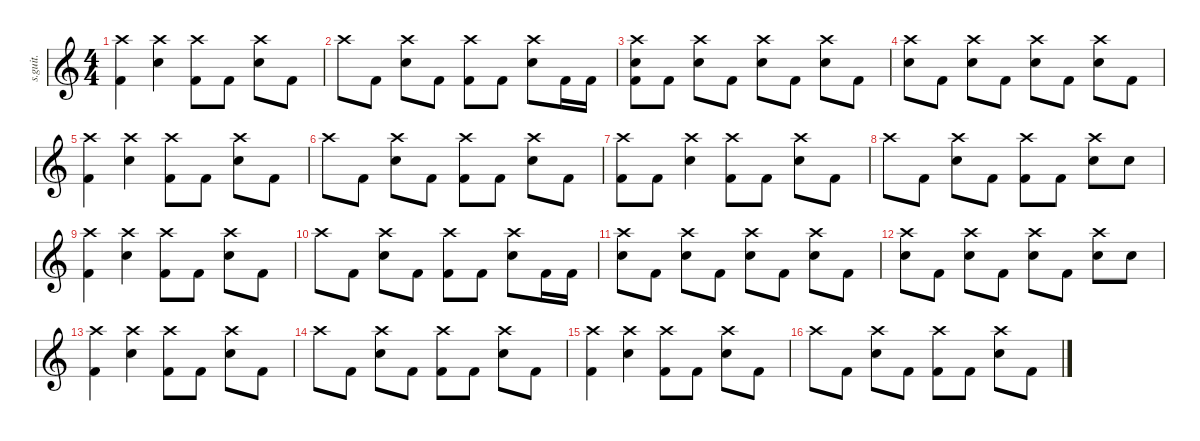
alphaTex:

\defaultSystemsLayout 4
\hideDynamics
\bracketExtendMode nobrackets
\track ("" "s.guit.") {instrument percussion}
\staff {score}
\articulation defaults
\ts (4 4)
\tempo (184 hide)
\clef g2
\ks c
("Crash high (hit)" "Kick (hit) 2").4{dy f} ("Crash high (hit)" "Snare (hit) 2").4 ("Crash high (hit)" "Kick (hit) 2").8 "Kick (hit) 2".8 ("Crash high (hit)" "Snare (hit) 2").8 "Kick (hit) 2".8 |
"Crash high (hit)".8 "Kick (hit) 2".8 ("Crash high (hit)" "Snare (hit) 2").8 "Kick (hit) 2".8 ("Crash high (hit)" "Kick (hit) 2").8 "Kick (hit) 2".8 ("Crash high (hit)" "Snare (hit) 2").8 "Kick (hit) 2".16 "Kick (hit) 2".16 |
("Crash high (hit)" "Snare (hit) 2" "Kick (hit) 2").8 "Kick (hit) 2".8 ("Crash high (hit)" "Snare (hit) 2").8 "Kick (hit) 2".8 ("Crash high (hit)" "Snare (hit) 2").8 "Kick (hit) 2".8 ("Crash high (hit)" "Snare (hit) 2").8 "Kick (hit) 2".8 |
("Crash high (hit)" "Snare (hit) 2").8 "Kick (hit) 2".8 ("Crash high (hit)" "Snare (hit) 2").8 "Kick (hit) 2".8 ("Crash high (hit)" "Snare (hit) 2").8 "Kick (hit) 2".8 ("Crash high (hit)" "Snare (hit) 2").8 "Kick (hit) 2".8 |
("Crash high (hit)" "Kick (hit) 2").4 ("Crash high (hit)" "Snare (hit) 2").4 ("Crash high (hit)" "Kick (hit) 2").8 "Kick (hit) 2".8 ("Crash high (hit)" "Snare (hit) 2").8 "Kick (hit) 2".8 |
"Crash high (hit)".8 "Kick (hit) 2".8 ("Crash high (hit)" "Snare (hit) 2").8 "Kick (hit) 2".8 ("Crash high (hit)" "Kick (hit) 2").8 "Kick (hit) 2".8 ("Crash high (hit)" "Snare (hit) 2").8 "Kick (hit) 2".8 |
("Crash high (hit)" "Kick (hit) 2").8 "Kick (hit) 2".8 ("Crash high (hit)" "Snare (hit) 2").4 ("Crash high (hit)" "Kick (hit) 2").8 "Kick (hit) 2".8 ("Crash high (hit)" "Snare (hit) 2").8 "Kick (hit) 2".8 |
"Crash high (hit)".8 "Kick (hit) 2".8 ("Crash high (hit)" "Snare (hit) 2").8 "Kick (hit) 2".8 ("Crash high (hit)" "Kick (hit) 2").8 "Kick (hit) 2".8 ("Crash high (hit)" "Snare (hit) 2").8 "Snare (hit) 2".8 |
("Crash high (hit)" "Kick (hit) 2").4 ("Crash high (hit)" "Snare (hit) 2").4 ("Crash high (hit)" "Kick (hit) 2").8 "Kick (hit) 2".8 ("Crash high (hit)" "Snare (hit) 2").8 "Kick (hit) 2".8 |
"Crash high (hit)".8 "Kick (hit) 2".8 ("Crash high (hit)" "Snare (hit) 2").8 "Kick (hit) 2".8 ("Crash high (hit)" "Kick (hit) 2").8 "Kick (hit) 2".8 ("Crash high (hit)" "Snare (hit) 2").8 "Kick (hit) 2".16 "Kick (hit) 2".16 |
("Crash high (hit)" "Snare (hit) 2").8 "Kick (hit) 2".8 ("Crash high (hit)" "Snare (hit) 2").8 "Kick (hit) 2".8 ("Crash high (hit)" "Snare (hit) 2").8 "Kick (hit) 2".8 ("Crash high (hit)" "Snare (hit) 2").8 "Kick (hit) 2".8 |
("Crash high (hit)" "Snare (hit) 2").8 "Kick (hit) 2".8 ("Crash high (hit)" "Snare (hit) 2").8 "Kick (hit) 2".8 ("Crash high (hit)" "Snare (hit) 2").8 "Kick (hit) 2".8 ("Crash high (hit)" "Snare (hit) 2").8 "Snare (hit) 2".8 |
("Crash high (hit)" "Kick (hit) 2").4 ("Crash high (hit)" "Snare (hit) 2").4 ("Crash high (hit)" "Kick (hit) 2").8 "Kick (hit) 2".8 ("Crash high (hit)" "Snare (hit) 2").8 "Kick (hit) 2".8 |
"Crash high (hit)".8 "Kick (hit) 2".8 ("Crash high (hit)" "Snare (hit) 2").8 "Kick (hit) 2".8 ("Crash high (hit)" "Kick (hit) 2").8 "Kick (hit) 2".8 ("Crash high (hit)" "Snare (hit) 2").8 "Kick (hit) 2".8 |
("Crash high (hit)" "Kick (hit) 2").4 ("Crash high (hit)" "Snare (hit) 2").4 ("Crash high (hit)" "Kick (hit) 2").8 "Kick (hit) 2".8 ("Crash high (hit)" "Snare (hit) 2").8 "Kick (hit) 2".8 |
"Crash high (hit)".8 "Kick (hit) 2".8 ("Crash high (hit)" "Snare (hit) 2").8 "Kick (hit) 2".8 ("Crash high (hit)" "Kick (hit) 2").8 "Kick (hit) 2".8 ("Crash high (hit)" "Snare (hit) 2").8 "Kick (hit) 2".8
